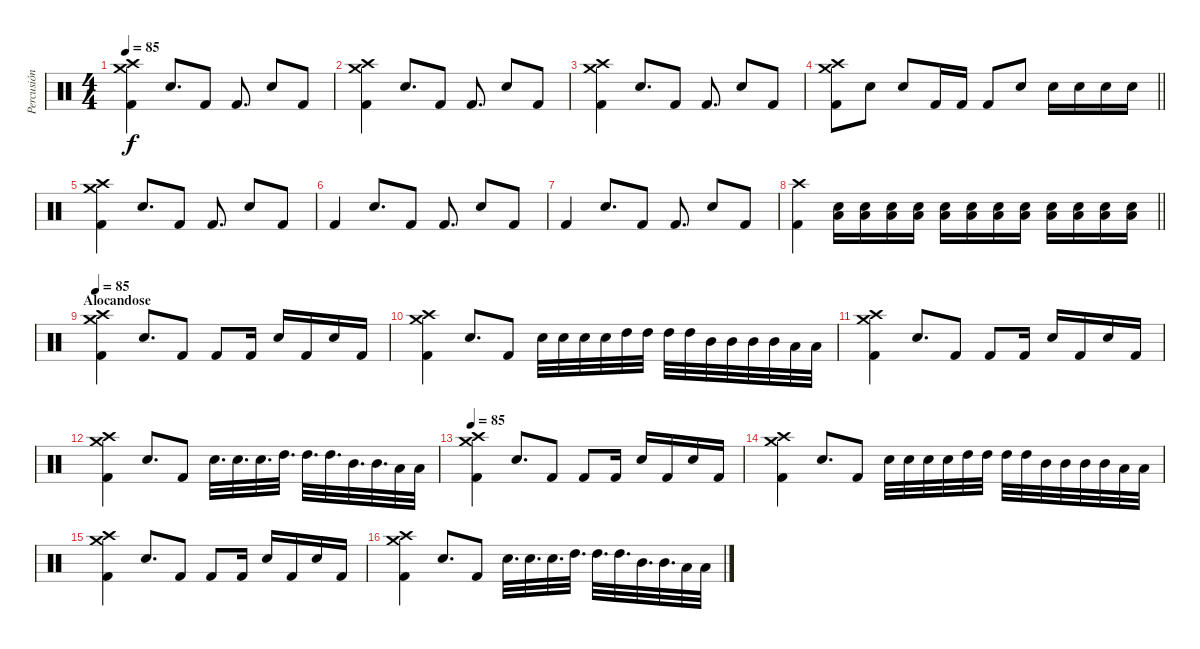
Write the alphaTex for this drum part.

\track ("Percusión" "Percusión") {instrument percussion}
\staff {score}
\articulation defaults
\ts (4 4)
\tempo 85
\clef neutral
\ks c
("Crash medium (hit)" "Crash high (hit)" "Kick (hit) 2").4{dy f} "Electric Snare (hit)".8{d} "Kick (hit) 2".8 "Kick (hit) 2".8{d} "Electric Snare (hit)".8 "Kick (hit) 2".8 |
("Crash medium (hit)" "Crash high (hit)" "Kick (hit) 2").4 "Electric Snare (hit)".8{d} "Kick (hit) 2".8 "Kick (hit) 2".8{d} "Electric Snare (hit)".8 "Kick (hit) 2".8 |
("Crash medium (hit)" "Crash high (hit)" "Kick (hit) 2").4 "Electric Snare (hit)".8{d} "Kick (hit) 2".8 "Kick (hit) 2".8{d} "Electric Snare (hit)".8 "Kick (hit) 2".8 |
\barLineRight lightlight
("Crash medium (hit)" "Crash high (hit)" "Kick (hit) 2").8 "Electric Snare (hit)".8 "Electric Snare (hit)".8 "Kick (hit) 2".16 "Kick (hit) 2".16 "Kick (hit) 2".8 "Electric Snare (hit)".8 "Electric Snare (hit)".16 "Electric Snare (hit)".16 "Electric Snare (hit)".16 "Electric Snare (hit)".16 |
("Crash medium (hit)" "Crash high (hit)" "Kick (hit) 2").4 "Electric Snare (hit)".8{d} "Kick (hit) 2".8 "Kick (hit) 2".8{d} "Electric Snare (hit)".8 "Kick (hit) 2".8 |
"Kick (hit) 2".4 "Electric Snare (hit)".8{d} "Kick (hit) 2".8 "Kick (hit) 2".8{d} "Electric Snare (hit)".8 "Kick (hit) 2".8 |
"Kick (hit) 2".4 "Electric Snare (hit)".8{d} "Kick (hit) 2".8 "Kick (hit) 2".8{d} "Electric Snare (hit)".8 "Kick (hit) 2".8 |
\barLineRight lightlight
("Crash high (hit)" "Kick (hit) 2").4 ("Low Tom (hit)" "Electric Snare (hit)").16 ("Low Tom (hit)" "Electric Snare (hit)").16 ("Low Tom (hit)" "Electric Snare (hit)").16 ("Low Tom (hit)" "Electric Snare (hit)").16 ("Low Tom (hit)" "Electric Snare (hit)").16 ("Low Tom (hit)" "Electric Snare (hit)").16 ("Low Tom (hit)" "Electric Snare (hit)").16 ("Low Tom (hit)" "Electric Snare (hit)").16 ("Low Tom (hit)" "Electric Snare (hit)").16 ("Low Tom (hit)" "Electric Snare (hit)").16 ("Low Tom (hit)" "Electric Snare (hit)").16 ("Low Tom (hit)" "Electric Snare (hit)").16 |
\section ("" "Alocandose")
\tempo 85
("Crash medium (hit)" "Crash high (hit)" "Kick (hit) 2").4 "Electric Snare (hit)".8{d} "Kick (hit) 2".8 "Kick (hit) 2".8 "Kick (hit) 2".16 "Electric Snare (hit)".16 "Kick (hit) 2".16 "Electric Snare (hit)".16 "Kick (hit) 2".16 |
("Crash medium (hit)" "Crash high (hit)" "Kick (hit) 2").4 "Electric Snare (hit)".8{d} "Kick (hit) 2".8 "Electric Snare (hit)".32 "Electric Snare (hit)".32 "Electric Snare (hit)".32 "Electric Snare (hit)".32 "High Tom (hit)".32 "High Tom (hit)".32 "High Tom (hit)".32 "High Tom (hit)".32 "Mid Tom (hit)".32 "Mid Tom (hit)".32 "Mid Tom (hit)".32 "Mid Tom (hit)".32 "Low Tom (hit)".32 "Low Tom (hit)".32 |
("Crash medium (hit)" "Crash high (hit)" "Kick (hit) 2").4 "Electric Snare (hit)".8{d} "Kick (hit) 2".8 "Kick (hit) 2".8 "Kick (hit) 2".16 "Electric Snare (hit)".16 "Kick (hit) 2".16 "Electric Snare (hit)".16 "Kick (hit) 2".16 |
("Crash medium (hit)" "Crash high (hit)" "Kick (hit) 2").4 "Electric Snare (hit)".8{d} "Kick (hit) 2".8 "Electric Snare (hit)".32{d} "Electric Snare (hit)".32{d} "Electric Snare (hit)".32{d} "High Tom (hit)".32{d} "High Tom (hit)".32{d} "High Tom (hit)".32{d} "Mid Tom (hit)".32{d} "Mid Tom (hit)".32{d} "Low Tom (hit)".32 "Low Tom (hit)".32 |
\tempo 85
("Crash medium (hit)" "Crash high (hit)" "Kick (hit) 2").4 "Electric Snare (hit)".8{d} "Kick (hit) 2".8 "Kick (hit) 2".8 "Kick (hit) 2".16 "Electric Snare (hit)".16 "Kick (hit) 2".16 "Electric Snare (hit)".16 "Kick (hit) 2".16 |
("Crash medium (hit)" "Crash high (hit)" "Kick (hit) 2").4 "Electric Snare (hit)".8{d} "Kick (hit) 2".8 "Electric Snare (hit)".32 "Electric Snare (hit)".32 "Electric Snare (hit)".32 "Electric Snare (hit)".32 "High Tom (hit)".32 "High Tom (hit)".32 "High Tom (hit)".32 "High Tom (hit)".32 "Mid Tom (hit)".32 "Mid Tom (hit)".32 "Mid Tom (hit)".32 "Mid Tom (hit)".32 "Low Tom (hit)".32 "Low Tom (hit)".32 |
("Crash medium (hit)" "Crash high (hit)" "Kick (hit) 2").4 "Electric Snare (hit)".8{d} "Kick (hit) 2".8 "Kick (hit) 2".8 "Kick (hit) 2".16 "Electric Snare (hit)".16 "Kick (hit) 2".16 "Electric Snare (hit)".16 "Kick (hit) 2".16 |
("Crash medium (hit)" "Crash high (hit)" "Kick (hit) 2").4 "Electric Snare (hit)".8{d} "Kick (hit) 2".8 "Electric Snare (hit)".32{d} "Electric Snare (hit)".32{d} "Electric Snare (hit)".32{d} "High Tom (hit)".32{d} "High Tom (hit)".32{d} "High Tom (hit)".32{d} "Mid Tom (hit)".32{d} "Mid Tom (hit)".32{d} "Low Tom (hit)".32 "Low Tom (hit)".32
